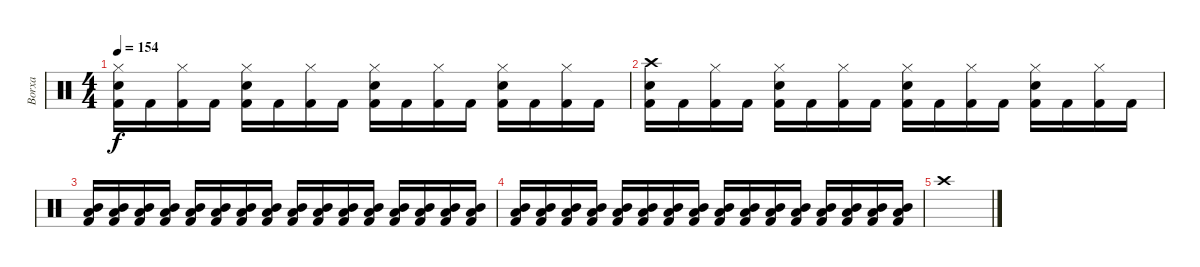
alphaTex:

\track ("Borxa" "Borxa") {instrument percussion}
\staff {score}
\articulation defaults
\ts (4 4)
\tempo 154
\clef neutral
\ks c
("Hi-Hat (closed)" "Snare (hit) 2" "Kick (hit) 2").16{dy f} "Kick (hit) 2".16 ("Hi-Hat (closed)" "Kick (hit) 2").16 "Kick (hit) 2".16 ("Hi-Hat (closed)" "Snare (hit) 2" "Kick (hit) 2").16 "Kick (hit) 2".16 ("Hi-Hat (closed)" "Kick (hit) 2").16 "Kick (hit) 2".16 ("Hi-Hat (closed)" "Snare (hit) 2" "Kick (hit) 2").16 "Kick (hit) 2".16 ("Hi-Hat (closed)" "Kick (hit) 2").16 "Kick (hit) 2".16 ("Hi-Hat (closed)" "Snare (hit) 2" "Kick (hit) 2").16 "Kick (hit) 2".16 ("Hi-Hat (closed)" "Kick (hit) 2").16 "Kick (hit) 2".16 |
("Crash high (hit)" "Snare (hit) 2" "Kick (hit) 2").16 "Kick (hit) 2".16 ("Hi-Hat (closed)" "Kick (hit) 2").16 "Kick (hit) 2".16 ("Hi-Hat (closed)" "Snare (hit) 2" "Kick (hit) 2").16 "Kick (hit) 2".16 ("Hi-Hat (closed)" "Kick (hit) 2").16 "Kick (hit) 2".16 ("Hi-Hat (closed)" "Snare (hit) 2" "Kick (hit) 2").16 "Kick (hit) 2".16 ("Hi-Hat (closed)" "Kick (hit) 2").16 "Kick (hit) 2".16 ("Hi-Hat (closed)" "Snare (hit) 2" "Kick (hit) 2").16 "Kick (hit) 2".16 ("Hi-Hat (closed)" "Kick (hit) 2").16 "Kick (hit) 2".16 |
("Low Floor Tom (hit)" "Mid Tom (hit)" "Kick (hit) 2").16 ("Low Floor Tom (hit)" "Mid Tom (hit)" "Kick (hit) 2").16 ("Low Floor Tom (hit)" "Mid Tom (hit)" "Kick (hit) 2").16 ("Low Floor Tom (hit)" "Mid Tom (hit)" "Kick (hit) 2").16 ("Low Floor Tom (hit)" "Mid Tom (hit)" "Kick (hit) 2").16 ("Low Floor Tom (hit)" "Mid Tom (hit)" "Kick (hit) 2").16 ("Low Floor Tom (hit)" "Mid Tom (hit)" "Kick (hit) 2").16 ("Low Floor Tom (hit)" "Mid Tom (hit)" "Kick (hit) 2").16 ("Low Floor Tom (hit)" "Mid Tom (hit)" "Kick (hit) 2").16 ("Low Floor Tom (hit)" "Mid Tom (hit)" "Kick (hit) 2").16 ("Low Floor Tom (hit)" "Mid Tom (hit)" "Kick (hit) 2").16 ("Low Floor Tom (hit)" "Mid Tom (hit)" "Kick (hit) 2").16 ("Low Floor Tom (hit)" "Mid Tom (hit)" "Kick (hit) 2").16 ("Low Floor Tom (hit)" "Mid Tom (hit)" "Kick (hit) 2").16 ("Low Floor Tom (hit)" "Mid Tom (hit)" "Kick (hit) 2").16 ("Low Floor Tom (hit)" "Mid Tom (hit)" "Kick (hit) 2").16 |
("Low Floor Tom (hit)" "Mid Tom (hit)" "Kick (hit) 2").16 ("Low Floor Tom (hit)" "Mid Tom (hit)" "Kick (hit) 2").16 ("Low Floor Tom (hit)" "Mid Tom (hit)" "Kick (hit) 2").16 ("Low Floor Tom (hit)" "Mid Tom (hit)" "Kick (hit) 2").16 ("Low Floor Tom (hit)" "Mid Tom (hit)" "Kick (hit) 2").16 ("Low Floor Tom (hit)" "Mid Tom (hit)" "Kick (hit) 2").16 ("Low Floor Tom (hit)" "Mid Tom (hit)" "Kick (hit) 2").16 ("Low Floor Tom (hit)" "Mid Tom (hit)" "Kick (hit) 2").16 ("Low Floor Tom (hit)" "Mid Tom (hit)" "Kick (hit) 2").16 ("Low Floor Tom (hit)" "Mid Tom (hit)" "Kick (hit) 2").16 ("Low Floor Tom (hit)" "Mid Tom (hit)" "Kick (hit) 2").16 ("Low Floor Tom (hit)" "Mid Tom (hit)" "Kick (hit) 2").16 ("Low Floor Tom (hit)" "Mid Tom (hit)" "Kick (hit) 2").16 ("Low Floor Tom (hit)" "Mid Tom (hit)" "Kick (hit) 2").16 ("Low Floor Tom (hit)" "Mid Tom (hit)" "Kick (hit) 2").16 ("Low Floor Tom (hit)" "Mid Tom (hit)" "Kick (hit) 2").16 |
"Crash high (hit)".1
